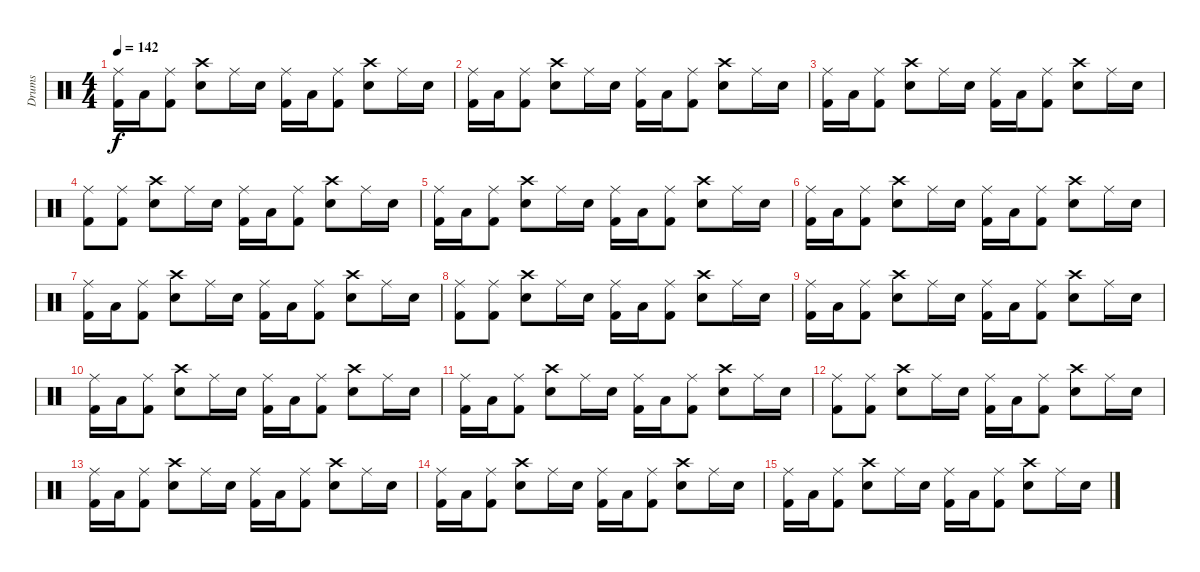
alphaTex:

\track ("Drums" "Drums") {instrument percussion}
\staff {score}
\articulation defaults
\ts (4 4)
\tempo 142
\clef neutral
\ks c
("Ride (middle)" "Kick (hit) 2").16{dy f} "Low Tom (hit)".16 ("Ride (middle)" "Kick (hit) 2").8 ("Crash high (hit)" "Electric Snare (hit)").8 "Ride (middle)".16 "Electric Snare (hit)".16 ("Ride (middle)" "Kick (hit) 2").16 "Low Tom (hit)".16 ("Ride (middle)" "Kick (hit) 2").8 ("Crash high (hit)" "Electric Snare (hit)").8 "Ride (middle)".16 "Electric Snare (hit)".16 |
("Ride (middle)" "Kick (hit) 2").16 "Low Tom (hit)".16 ("Ride (middle)" "Kick (hit) 2").8 ("Crash high (hit)" "Electric Snare (hit)").8 "Ride (middle)".16 "Electric Snare (hit)".16 ("Ride (middle)" "Kick (hit) 2").16 "Low Tom (hit)".16 ("Ride (middle)" "Kick (hit) 2").8 ("Crash high (hit)" "Electric Snare (hit)").8 "Ride (middle)".16 "Electric Snare (hit)".16 |
("Ride (middle)" "Kick (hit) 2").16 "Low Tom (hit)".16 ("Ride (middle)" "Kick (hit) 2").8 ("Crash high (hit)" "Electric Snare (hit)").8 "Ride (middle)".16 "Electric Snare (hit)".16 ("Ride (middle)" "Kick (hit) 2").16 "Low Tom (hit)".16 ("Ride (middle)" "Kick (hit) 2").8 ("Crash high (hit)" "Electric Snare (hit)").8 "Ride (middle)".16 "Electric Snare (hit)".16 |
("Ride (middle)" "Kick (hit) 2").8 ("Ride (middle)" "Kick (hit) 2").8 ("Crash high (hit)" "Electric Snare (hit)").8 "Ride (middle)".16 "Electric Snare (hit)".16 ("Ride (middle)" "Kick (hit) 2").16 "Low Tom (hit)".16 ("Ride (middle)" "Kick (hit) 2").8 ("Crash high (hit)" "Electric Snare (hit)").8 "Ride (middle)".16 "Electric Snare (hit)".16 |
("Ride (middle)" "Kick (hit) 2").16 "Low Tom (hit)".16 ("Ride (middle)" "Kick (hit) 2").8 ("Crash high (hit)" "Electric Snare (hit)").8 "Ride (middle)".16 "Electric Snare (hit)".16 ("Ride (middle)" "Kick (hit) 2").16 "Low Tom (hit)".16 ("Ride (middle)" "Kick (hit) 2").8 ("Crash high (hit)" "Electric Snare (hit)").8 "Ride (middle)".16 "Electric Snare (hit)".16 |
("Ride (middle)" "Kick (hit) 2").16 "Low Tom (hit)".16 ("Ride (middle)" "Kick (hit) 2").8 ("Crash high (hit)" "Electric Snare (hit)").8 "Ride (middle)".16 "Electric Snare (hit)".16 ("Ride (middle)" "Kick (hit) 2").16 "Low Tom (hit)".16 ("Ride (middle)" "Kick (hit) 2").8 ("Crash high (hit)" "Electric Snare (hit)").8 "Ride (middle)".16 "Electric Snare (hit)".16 |
("Ride (middle)" "Kick (hit) 2").16 "Low Tom (hit)".16 ("Ride (middle)" "Kick (hit) 2").8 ("Crash high (hit)" "Electric Snare (hit)").8 "Ride (middle)".16 "Electric Snare (hit)".16 ("Ride (middle)" "Kick (hit) 2").16 "Low Tom (hit)".16 ("Ride (middle)" "Kick (hit) 2").8 ("Crash high (hit)" "Electric Snare (hit)").8 "Ride (middle)".16 "Electric Snare (hit)".16 |
("Ride (middle)" "Kick (hit) 2").8 ("Ride (middle)" "Kick (hit) 2").8 ("Crash high (hit)" "Electric Snare (hit)").8 "Ride (middle)".16 "Electric Snare (hit)".16 ("Ride (middle)" "Kick (hit) 2").16 "Low Tom (hit)".16 ("Ride (middle)" "Kick (hit) 2").8 ("Crash high (hit)" "Electric Snare (hit)").8 "Ride (middle)".16 "Electric Snare (hit)".16 |
("Ride (middle)" "Kick (hit) 2").16 "Low Tom (hit)".16 ("Ride (middle)" "Kick (hit) 2").8 ("Crash high (hit)" "Electric Snare (hit)").8 "Ride (middle)".16 "Electric Snare (hit)".16 ("Ride (middle)" "Kick (hit) 2").16 "Low Tom (hit)".16 ("Ride (middle)" "Kick (hit) 2").8 ("Crash high (hit)" "Electric Snare (hit)").8 "Ride (middle)".16 "Electric Snare (hit)".16 |
("Ride (middle)" "Kick (hit) 2").16 "Low Tom (hit)".16 ("Ride (middle)" "Kick (hit) 2").8 ("Crash high (hit)" "Electric Snare (hit)").8 "Ride (middle)".16 "Electric Snare (hit)".16 ("Ride (middle)" "Kick (hit) 2").16 "Low Tom (hit)".16 ("Ride (middle)" "Kick (hit) 2").8 ("Crash high (hit)" "Electric Snare (hit)").8 "Ride (middle)".16 "Electric Snare (hit)".16 |
("Ride (middle)" "Kick (hit) 2").16 "Low Tom (hit)".16 ("Ride (middle)" "Kick (hit) 2").8 ("Crash high (hit)" "Electric Snare (hit)").8 "Ride (middle)".16 "Electric Snare (hit)".16 ("Ride (middle)" "Kick (hit) 2").16 "Low Tom (hit)".16 ("Ride (middle)" "Kick (hit) 2").8 ("Crash high (hit)" "Electric Snare (hit)").8 "Ride (middle)".16 "Electric Snare (hit)".16 |
("Ride (middle)" "Kick (hit) 2").8 ("Ride (middle)" "Kick (hit) 2").8 ("Crash high (hit)" "Electric Snare (hit)").8 "Ride (middle)".16 "Electric Snare (hit)".16 ("Ride (middle)" "Kick (hit) 2").16 "Low Tom (hit)".16 ("Ride (middle)" "Kick (hit) 2").8 ("Crash high (hit)" "Electric Snare (hit)").8 "Ride (middle)".16 "Electric Snare (hit)".16 |
("Ride (middle)" "Kick (hit) 2").16 "Low Tom (hit)".16 ("Ride (middle)" "Kick (hit) 2").8 ("Crash high (hit)" "Electric Snare (hit)").8 "Ride (middle)".16 "Electric Snare (hit)".16 ("Ride (middle)" "Kick (hit) 2").16 "Low Tom (hit)".16 ("Ride (middle)" "Kick (hit) 2").8 ("Crash high (hit)" "Electric Snare (hit)").8 "Ride (middle)".16 "Electric Snare (hit)".16 |
("Ride (middle)" "Kick (hit) 2").16 "Low Tom (hit)".16 ("Ride (middle)" "Kick (hit) 2").8 ("Crash high (hit)" "Electric Snare (hit)").8 "Ride (middle)".16 "Electric Snare (hit)".16 ("Ride (middle)" "Kick (hit) 2").16 "Low Tom (hit)".16 ("Ride (middle)" "Kick (hit) 2").8 ("Crash high (hit)" "Electric Snare (hit)").8 "Ride (middle)".16 "Electric Snare (hit)".16 |
("Ride (middle)" "Kick (hit) 2").16 "Low Tom (hit)".16 ("Ride (middle)" "Kick (hit) 2").8 ("Crash high (hit)" "Electric Snare (hit)").8 "Ride (middle)".16 "Electric Snare (hit)".16 ("Ride (middle)" "Kick (hit) 2").16 "Low Tom (hit)".16 ("Ride (middle)" "Kick (hit) 2").8 ("Crash high (hit)" "Electric Snare (hit)").8 "Ride (middle)".16 "Electric Snare (hit)".16
